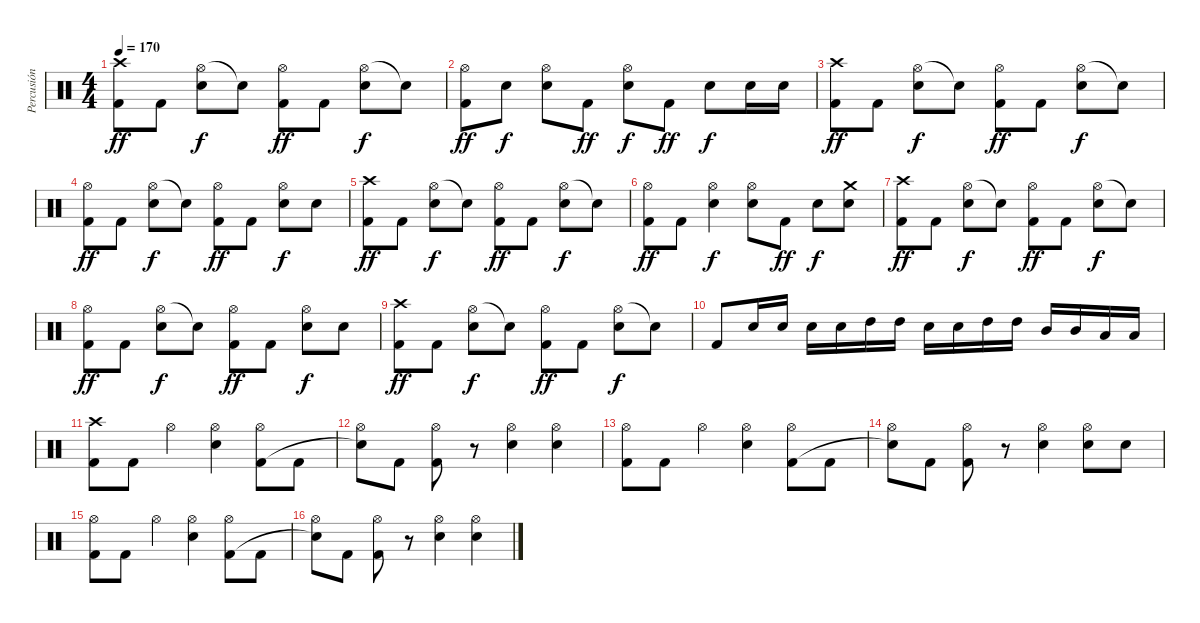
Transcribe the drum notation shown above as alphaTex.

\track ("Percusión" "Percusión") {instrument percussion}
\staff {score}
\articulation defaults
\ts (4 4)
\tempo 170
\clef neutral
\ks c
("Crash high (hit)" "Kick (hit) 2").8{dy ff} "Kick (hit) 2".8 ("Hi-Hat (open)" "Snare (hit) 2").8{dy f} "Snare (hit)"{t}.8 ("Hi-Hat (open)" "Kick (hit) 2").8{dy ff} "Kick (hit) 2".8 ("Hi-Hat (open)" "Snare (hit) 2").8{dy f} "Snare (hit)"{t}.8 |
("Hi-Hat (open)" "Kick (hit) 2").8{dy ff} "Snare (hit) 2".8{dy f} ("Hi-Hat (open)" "Snare (hit) 2").8 "Kick (hit) 2".8{dy ff} ("Hi-Hat (open)" "Snare (hit) 2").8{dy f} "Kick (hit) 2".8{dy ff} "Snare (hit) 2".8{dy f} "Snare (hit) 2".16 "Snare (hit) 2".16 |
("Crash high (hit)" "Kick (hit) 2").8{dy ff} "Kick (hit) 2".8 ("Hi-Hat (open)" "Snare (hit) 2").8{dy f} "Snare (hit)"{t}.8 ("Hi-Hat (open)" "Kick (hit) 2").8{dy ff} "Kick (hit) 2".8 ("Hi-Hat (open)" "Snare (hit) 2").8{dy f} "Snare (hit)"{t}.8 |
("Hi-Hat (open)" "Kick (hit) 2").8{dy ff} "Kick (hit) 2".8 ("Hi-Hat (open)" "Snare (hit) 2").8{dy f} "Snare (hit)"{t}.8 ("Hi-Hat (open)" "Kick (hit) 2").8{dy ff} "Kick (hit) 2".8 ("Hi-Hat (open)" "Snare (hit) 2").8{dy f} "Snare (hit) 2".8 |
("Crash high (hit)" "Kick (hit) 2").8{dy ff} "Kick (hit) 2".8 ("Hi-Hat (open)" "Snare (hit) 2").8{dy f} "Snare (hit)"{t}.8 ("Hi-Hat (open)" "Kick (hit) 2").8{dy ff} "Kick (hit) 2".8 ("Hi-Hat (open)" "Snare (hit) 2").8{dy f} "Snare (hit)"{t}.8 |
("Hi-Hat (open)" "Kick (hit) 2").8{dy ff} "Kick (hit) 2".8 ("Hi-Hat (open)" "Snare (hit) 2").4{dy f} ("Hi-Hat (open)" "Snare (hit) 2").8 "Kick (hit) 2".8{dy ff} "Snare (hit) 2".8{dy f} ("Crash medium (hit)" "Snare (hit) 2").8 |
("Crash high (hit)" "Kick (hit) 2").8{dy ff} "Kick (hit) 2".8 ("Hi-Hat (open)" "Snare (hit) 2").8{dy f} "Snare (hit)"{t}.8 ("Hi-Hat (open)" "Kick (hit) 2").8{dy ff} "Kick (hit) 2".8 ("Hi-Hat (open)" "Snare (hit) 2").8{dy f} "Snare (hit)"{t}.8 |
("Hi-Hat (open)" "Kick (hit) 2").8{dy ff} "Kick (hit) 2".8 ("Hi-Hat (open)" "Snare (hit) 2").8{dy f} "Snare (hit)"{t}.8 ("Hi-Hat (open)" "Kick (hit) 2").8{dy ff} "Kick (hit) 2".8 ("Hi-Hat (open)" "Snare (hit) 2").8{dy f} "Snare (hit) 2".8 |
("Crash high (hit)" "Kick (hit) 2").8{dy ff} "Kick (hit) 2".8 ("Hi-Hat (open)" "Snare (hit) 2").8{dy f} "Snare (hit)"{t}.8 ("Hi-Hat (open)" "Kick (hit) 2").8{dy ff} "Kick (hit) 2".8 ("Hi-Hat (open)" "Snare (hit) 2").8{dy f} "Snare (hit)"{t}.8 |
"Kick (hit) 2".8 "Snare (hit) 2".16 "Snare (hit) 2".16 "Snare (hit) 2".16 "Snare (hit) 2".16 "High Tom (hit)".16 "High Tom (hit)".16 "Snare (hit) 2".16 "Snare (hit) 2".16 "High Tom (hit)".16 "High Tom (hit)".16 "Mid Tom (hit)".16 "Mid Tom (hit)".16 "Low Tom (hit)".16 "Low Tom (hit)".16 |
("Crash high (hit)" "Kick (hit) 2").8 "Kick (hit) 2".8 "Hi-Hat (open)".4 ("Hi-Hat (open)" "Snare (hit) 2").4 ("Hi-Hat (open)" "Kick (hit) 2").8 "Kick (hit) 2".8 |
("Hi-Hat (open)" "Snare (hit)"{t}).8 "Kick (hit) 2".8 ("Hi-Hat (open)" "Kick (hit) 2").8 r.8 ("Hi-Hat (open)" "Snare (hit) 2").4 ("Hi-Hat (open)" "Snare (hit) 2").4 |
("Hi-Hat (open)" "Kick (hit) 2").8 "Kick (hit) 2".8 "Hi-Hat (open)".4 ("Hi-Hat (open)" "Snare (hit) 2").4 ("Hi-Hat (open)" "Kick (hit) 2").8 "Kick (hit) 2".8 |
("Hi-Hat (open)" "Snare (hit)"{t}).8 "Kick (hit) 2".8 ("Hi-Hat (open)" "Kick (hit) 2").8 r.8 ("Hi-Hat (open)" "Snare (hit) 2").4 ("Hi-Hat (open)" "Snare (hit) 2").8 "Snare (hit) 2".8 |
("Hi-Hat (open)" "Kick (hit) 2").8 "Kick (hit) 2".8 "Hi-Hat (open)".4 ("Hi-Hat (open)" "Snare (hit) 2").4 ("Hi-Hat (open)" "Kick (hit) 2").8 "Kick (hit) 2".8 |
("Hi-Hat (open)" "Snare (hit)"{t}).8 "Kick (hit) 2".8 ("Hi-Hat (open)" "Kick (hit) 2").8 r.8 ("Hi-Hat (open)" "Snare (hit) 2").4 ("Hi-Hat (open)" "Snare (hit) 2").4
